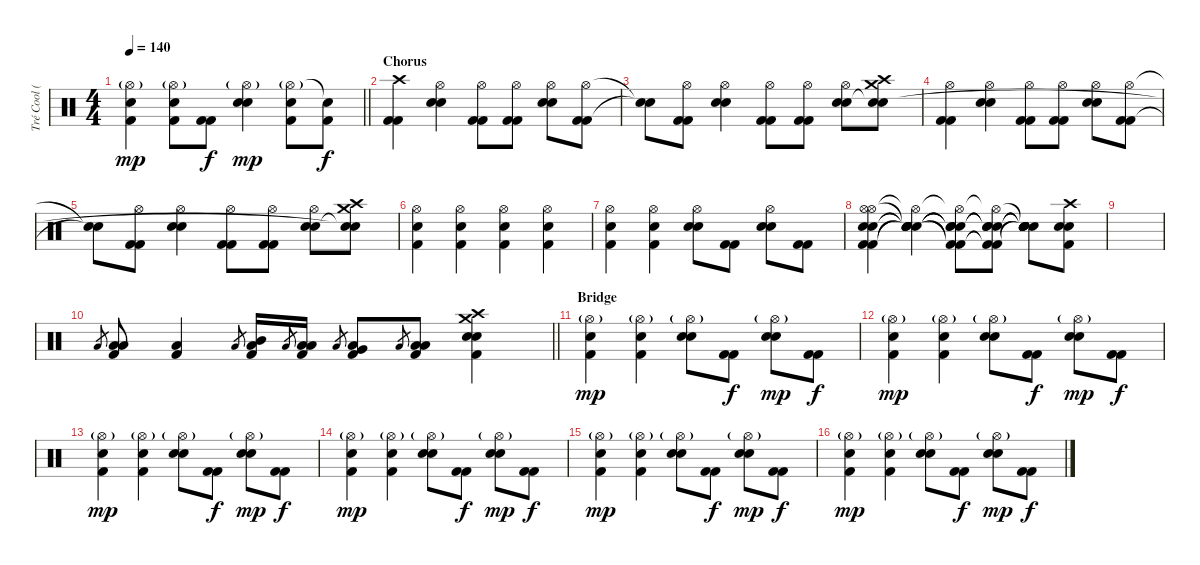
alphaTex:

\track ("Tré Cool (Drums)" "Tré Cool (") {instrument percussion}
\staff {score}
\articulation defaults
\ts (4 4)
\tempo 140
\clef neutral
\barLineRight lightlight
\ks c
("Hi-Hat (open)"{g} "Electric Snare (hit)" "Kick (hit) 2").4{dy mp} ("Hi-Hat (open)"{g} "Electric Snare (hit)" "Kick (hit) 2").8 ("Kick (hit) 2" "Kick (hit) 2").8{dy f} ("Hi-Hat (open)"{g} "Electric Snare (hit)" "Electric Snare (hit)").4{dy mp} ("Hi-Hat (open)"{g} "Electric Snare (hit)"{tr (38 64)} "Kick (hit) 2").8 ("Electric Snare (hit)"{t} "Kick (hit) 2").8{dy f} |
\section ("" "Chorus")
("Crash high (hit)" "Kick (hit) 2" "Kick (hit) 2").4 ("Hi-Hat (open)" "Electric Snare (hit)" "Electric Snare (hit)").4 ("Hi-Hat (open)" "Kick (hit) 2" "Kick (hit) 2").8 ("Hi-Hat (open)" "Kick (hit) 2" "Kick (hit) 2").8 ("Hi-Hat (open)" "Electric Snare (hit)" "Electric Snare (hit)").8 ("Hi-Hat (open)" "Kick (hit) 2" "Kick (hit) 2").8 |
("Snare (hit)"{t} "Snare (hit)"{t}).8 ("Hi-Hat (open)" "Kick (hit) 2" "Kick (hit) 2").8 ("Hi-Hat (open)" "Electric Snare (hit)" "Electric Snare (hit)").4 ("Hi-Hat (open)" "Kick (hit) 2" "Kick (hit) 2").8 ("Hi-Hat (open)" "Kick (hit) 2" "Kick (hit) 2").8 ("Hi-Hat (open)" "Electric Snare (hit)" "Electric Snare (hit)").8 ("Crash high (hit)" "Crash medium (hit)" "Snare (hit)"{t} "Snare (hit)").8 |
("Hi-Hat (open)" "Kick (hit) 2" "Kick (hit) 2").4 ("Hi-Hat (open)" "Electric Snare (hit)" "Electric Snare (hit)").4 ("Hi-Hat (open)" "Kick (hit) 2" "Kick (hit) 2").8 ("Hi-Hat (open)" "Kick (hit) 2" "Kick (hit) 2").8 ("Hi-Hat (open)" "Electric Snare (hit)" "Electric Snare (hit)").8 ("Hi-Hat (open)" "Kick (hit) 2" "Kick (hit) 2").8 |
("Snare (hit)"{t} "Snare (hit)"{t}).8 ("Hi-Hat (open)" "Kick (hit) 2" "Kick (hit) 2").8 ("Hi-Hat (open)" "Electric Snare (hit)" "Electric Snare (hit)").4 ("Hi-Hat (open)" "Kick (hit) 2" "Kick (hit) 2").8 ("Hi-Hat (open)" "Kick (hit) 2" "Kick (hit) 2").8 ("Hi-Hat (open)" "Electric Snare (hit)" "Electric Snare (hit)").8 ("Crash high (hit)" "Crash medium (hit)" "Snare (hit)"{t} "Snare (hit)"{t}).8 |
("Hi-Hat (open)" "Electric Snare (hit)" "Kick (hit) 2").4 ("Hi-Hat (open)" "Electric Snare (hit)" "Kick (hit) 2").4 ("Hi-Hat (open)" "Electric Snare (hit)" "Kick (hit) 2").4 ("Hi-Hat (open)" "Electric Snare (hit)" "Kick (hit) 2").4 |
("Hi-Hat (open)" "Electric Snare (hit)" "Kick (hit) 2").4 ("Hi-Hat (open)" "Electric Snare (hit)" "Kick (hit) 2").4 ("Hi-Hat (open)" "Electric Snare (hit)" "Electric Snare (hit)").8 ("Kick (hit) 2" "Kick (hit) 2").8 ("Hi-Hat (open)" "Electric Snare (hit)" "Electric Snare (hit)").8 ("Kick (hit) 2" "Kick (hit) 2").8 |
("Hi-Hat (open)" "Hi-Hat (open)" "Electric Snare (hit)" "Electric Snare (hit)" "Kick (hit) 2" "Kick (hit) 2").4 ("Hi-Hat (open)"{t} "Snare (hit)"{t} "Snare (hit)"{t} "Snare (hit)"{t} "Electric Snare (hit)"{t} "Electric Snare (hit)"{t}).4 ("Hi-Hat (open)"{t} "Snare (hit)"{t} "Snare (hit)"{t} "Snare (hit)"{t} "Kick (hit) 2"{t} "Kick (hit) 2"{t}).8 ("Hi-Hat (open)"{t} "Snare (hit)"{t} "Snare (hit)"{t} "Snare (hit)"{t} "Kick (hit) 2"{t} "Kick (hit) 2"{t}).8 ("Snare (hit)"{t} "Snare (hit)"{t} "Snare (hit)"{t} "Snare (hit)"{t} "Snare (hit)"{t} "Snare (hit)"{t}).8 ("Crash high (hit)" "Electric Snare (hit)" "Electric Snare (hit)" "Kick (hit) 2").8 |
|
\barLineRight lightlight "Low Tom (hit)".8{gr}
("Low Tom (hit)" "Low Tom (hit)" "Kick (hit) 2").8 ("Low Floor Tom (hit)" "Kick (hit) 2").4 "Low Tom (hit)".8{gr} ("Mid Tom (hit)" "Low Tom (hit)" "Kick (hit) 2").16 "Low Tom (hit)".8{gr} ("Low Tom (hit)" "Low Tom (hit)" "Kick (hit) 2").16 "Low Tom (hit)".8{gr} ("Very Low Tom (hit)" "Low Tom (hit)" "Kick (hit) 2").8 "Low Tom (hit)".8{gr} ("Low Floor Tom (hit)" "Low Tom (hit)" "Kick (hit) 2").8 ("Crash high (hit)" "Electric Snare (hit)" "Electric Snare (hit)" "Crash medium (hit)" "Kick (hit) 2").4 |
\section ("" "Bridge")
("Hi-Hat (open)"{g} "Electric Snare (hit)" "Kick (hit) 2").4{dy mp} ("Hi-Hat (open)"{g} "Electric Snare (hit)" "Kick (hit) 2").4 ("Hi-Hat (open)"{g} "Electric Snare (hit)" "Electric Snare (hit)").8 ("Kick (hit) 2" "Kick (hit) 2").8{dy f} ("Hi-Hat (open)"{g} "Electric Snare (hit)" "Electric Snare (hit)").8{dy mp} ("Kick (hit) 2" "Kick (hit) 2").8{dy f} |
("Hi-Hat (open)"{g} "Electric Snare (hit)" "Kick (hit) 2").4{dy mp} ("Hi-Hat (open)"{g} "Electric Snare (hit)" "Kick (hit) 2").4 ("Hi-Hat (open)"{g} "Electric Snare (hit)" "Electric Snare (hit)").8 ("Kick (hit) 2" "Kick (hit) 2").8{dy f} ("Hi-Hat (open)"{g} "Electric Snare (hit)" "Electric Snare (hit)").8{dy mp} ("Kick (hit) 2" "Kick (hit) 2").8{dy f} |
("Hi-Hat (open)"{g} "Electric Snare (hit)" "Kick (hit) 2").4{dy mp} ("Hi-Hat (open)"{g} "Electric Snare (hit)" "Kick (hit) 2").4 ("Hi-Hat (open)"{g} "Electric Snare (hit)" "Electric Snare (hit)").8 ("Kick (hit) 2" "Kick (hit) 2").8{dy f} ("Hi-Hat (open)"{g} "Electric Snare (hit)" "Electric Snare (hit)").8{dy mp} ("Kick (hit) 2" "Kick (hit) 2").8{dy f} |
("Hi-Hat (open)"{g} "Electric Snare (hit)" "Kick (hit) 2").4{dy mp} ("Hi-Hat (open)"{g} "Electric Snare (hit)" "Kick (hit) 2").4 ("Hi-Hat (open)"{g} "Electric Snare (hit)" "Electric Snare (hit)").8 ("Kick (hit) 2" "Kick (hit) 2").8{dy f} ("Hi-Hat (open)"{g} "Electric Snare (hit)" "Electric Snare (hit)").8{dy mp} ("Kick (hit) 2" "Kick (hit) 2").8{dy f} |
("Hi-Hat (open)"{g} "Electric Snare (hit)" "Kick (hit) 2").4{dy mp} ("Hi-Hat (open)"{g} "Electric Snare (hit)" "Kick (hit) 2").4 ("Hi-Hat (open)"{g} "Electric Snare (hit)" "Electric Snare (hit)").8 ("Kick (hit) 2" "Kick (hit) 2").8{dy f} ("Hi-Hat (open)"{g} "Electric Snare (hit)" "Electric Snare (hit)").8{dy mp} ("Kick (hit) 2" "Kick (hit) 2").8{dy f} |
("Hi-Hat (open)"{g} "Electric Snare (hit)" "Kick (hit) 2").4{dy mp} ("Hi-Hat (open)"{g} "Electric Snare (hit)" "Kick (hit) 2").4 ("Hi-Hat (open)"{g} "Electric Snare (hit)" "Electric Snare (hit)").8 ("Kick (hit) 2" "Kick (hit) 2").8{dy f} ("Hi-Hat (open)"{g} "Electric Snare (hit)" "Electric Snare (hit)").8{dy mp} ("Kick (hit) 2" "Kick (hit) 2").8{dy f}
